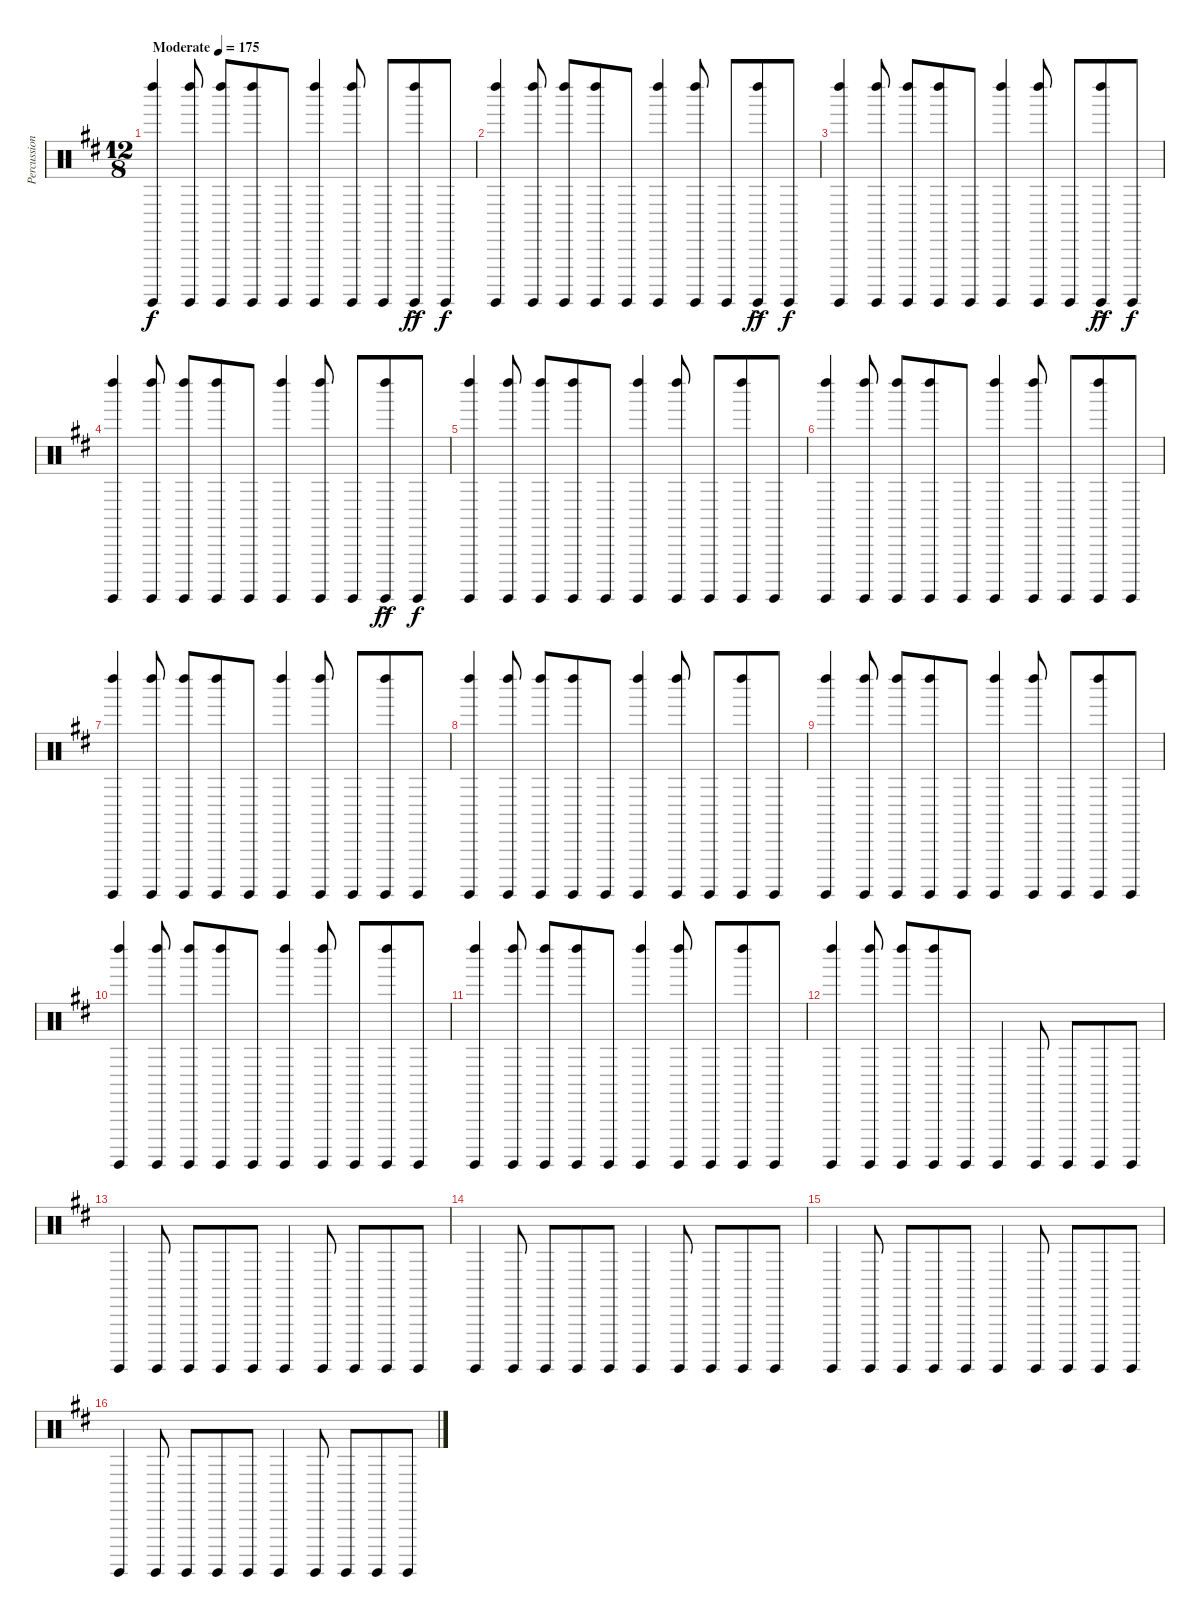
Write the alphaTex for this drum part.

\track ("Percussion" "Percussion") {instrument percussion}
\staff {score}
\articulation defaults
\ts (12 8)
\tempo (175 "Moderate")
\clef neutral
\ks d
("Surdo (hit)" "Left Maraca (hit)").4{dy f} ("Surdo (hit)" "Left Maraca (hit)").8 ("Surdo (hit)" "Left Maraca (hit)").8 ("Surdo (hit)" "Left Maraca (hit)").8 "Surdo (hit)".8 ("Surdo (hit)" "Left Maraca (hit)").4 ("Surdo (hit)" "Left Maraca (hit)").8 "Surdo (hit)".8 ("Surdo (hit)" "Left Maraca (hit)"{ac}).8{dy ff} "Surdo (hit)".8{dy f} |
("Surdo (hit)" "Left Maraca (hit)").4 ("Surdo (hit)" "Left Maraca (hit)").8 ("Surdo (hit)" "Left Maraca (hit)").8 ("Surdo (hit)" "Left Maraca (hit)").8 "Surdo (hit)".8 ("Surdo (hit)" "Left Maraca (hit)").4 ("Surdo (hit)" "Left Maraca (hit)").8 "Surdo (hit)".8 ("Surdo (hit)" "Left Maraca (hit)"{ac}).8{dy ff} "Surdo (hit)".8{dy f} |
("Surdo (hit)" "Left Maraca (hit)").4 ("Surdo (hit)" "Left Maraca (hit)").8 ("Surdo (hit)" "Left Maraca (hit)").8 ("Surdo (hit)" "Left Maraca (hit)").8 "Surdo (hit)".8 ("Surdo (hit)" "Left Maraca (hit)").4 ("Surdo (hit)" "Left Maraca (hit)").8 "Surdo (hit)".8 ("Surdo (hit)" "Left Maraca (hit)"{ac}).8{dy ff} "Surdo (hit)".8{dy f} |
("Surdo (hit)" "Left Maraca (hit)").4 ("Surdo (hit)" "Left Maraca (hit)").8 ("Surdo (hit)" "Left Maraca (hit)").8 ("Surdo (hit)" "Left Maraca (hit)").8 "Surdo (hit)".8 ("Surdo (hit)" "Left Maraca (hit)").4 ("Surdo (hit)" "Left Maraca (hit)").8 "Surdo (hit)".8 ("Surdo (hit)" "Left Maraca (hit)"{ac}).8{dy ff} "Surdo (hit)".8{dy f} |
("Surdo (hit)" "Left Maraca (hit)").4 ("Surdo (hit)" "Left Maraca (hit)").8 ("Surdo (hit)" "Left Maraca (hit)").8 ("Surdo (hit)" "Left Maraca (hit)").8 "Surdo (hit)".8 ("Surdo (hit)" "Left Maraca (hit)").4 ("Surdo (hit)" "Left Maraca (hit)").8 "Surdo (hit)".8 ("Surdo (hit)" "Left Maraca (hit)").8 "Surdo (hit)".8 |
("Surdo (hit)" "Left Maraca (hit)").4 ("Surdo (hit)" "Left Maraca (hit)").8 ("Surdo (hit)" "Left Maraca (hit)").8 ("Surdo (hit)" "Left Maraca (hit)").8 "Surdo (hit)".8 ("Surdo (hit)" "Left Maraca (hit)").4 ("Surdo (hit)" "Left Maraca (hit)").8 "Surdo (hit)".8 ("Surdo (hit)" "Left Maraca (hit)").8 "Surdo (hit)".8 |
("Surdo (hit)" "Left Maraca (hit)").4 ("Surdo (hit)" "Left Maraca (hit)").8 ("Surdo (hit)" "Left Maraca (hit)").8 ("Surdo (hit)" "Left Maraca (hit)").8 "Surdo (hit)".8 ("Surdo (hit)" "Left Maraca (hit)").4 ("Surdo (hit)" "Left Maraca (hit)").8 "Surdo (hit)".8 ("Surdo (hit)" "Left Maraca (hit)").8 "Surdo (hit)".8 |
("Surdo (hit)" "Left Maraca (hit)").4 ("Surdo (hit)" "Left Maraca (hit)").8 ("Surdo (hit)" "Left Maraca (hit)").8 ("Surdo (hit)" "Left Maraca (hit)").8 "Surdo (hit)".8 ("Surdo (hit)" "Left Maraca (hit)").4 ("Surdo (hit)" "Left Maraca (hit)").8 "Surdo (hit)".8 ("Surdo (hit)" "Left Maraca (hit)").8 "Surdo (hit)".8 |
("Surdo (hit)" "Left Maraca (hit)").4 ("Surdo (hit)" "Left Maraca (hit)").8 ("Surdo (hit)" "Left Maraca (hit)").8 ("Surdo (hit)" "Left Maraca (hit)").8 "Surdo (hit)".8 ("Surdo (hit)" "Left Maraca (hit)").4 ("Surdo (hit)" "Left Maraca (hit)").8 "Surdo (hit)".8 ("Surdo (hit)" "Left Maraca (hit)").8 "Surdo (hit)".8 |
("Surdo (hit)" "Left Maraca (hit)").4 ("Surdo (hit)" "Left Maraca (hit)").8 ("Surdo (hit)" "Left Maraca (hit)").8 ("Surdo (hit)" "Left Maraca (hit)").8 "Surdo (hit)".8 ("Surdo (hit)" "Left Maraca (hit)").4 ("Surdo (hit)" "Left Maraca (hit)").8 "Surdo (hit)".8 ("Surdo (hit)" "Left Maraca (hit)").8 "Surdo (hit)".8 |
("Surdo (hit)" "Left Maraca (hit)").4 ("Surdo (hit)" "Left Maraca (hit)").8 ("Surdo (hit)" "Left Maraca (hit)").8 ("Surdo (hit)" "Left Maraca (hit)").8 "Surdo (hit)".8 ("Surdo (hit)" "Left Maraca (hit)").4 ("Surdo (hit)" "Left Maraca (hit)").8 "Surdo (hit)".8 ("Surdo (hit)" "Left Maraca (hit)").8 "Surdo (hit)".8 |
("Surdo (hit)" "Left Maraca (hit)").4 ("Surdo (hit)" "Left Maraca (hit)").8 ("Surdo (hit)" "Left Maraca (hit)").8 ("Surdo (hit)" "Left Maraca (hit)").8 "Surdo (hit)".8 "Surdo (hit)".4 "Surdo (hit)".8 "Surdo (hit)".8 "Surdo (hit)".8 "Surdo (hit)".8 |
"Surdo (hit)".4 "Surdo (hit)".8 "Surdo (hit)".8 "Surdo (hit)".8 "Surdo (hit)".8 "Surdo (hit)".4 "Surdo (hit)".8 "Surdo (hit)".8 "Surdo (hit)".8 "Surdo (hit)".8 |
"Surdo (hit)".4 "Surdo (hit)".8 "Surdo (hit)".8 "Surdo (hit)".8 "Surdo (hit)".8 "Surdo (hit)".4 "Surdo (hit)".8 "Surdo (hit)".8 "Surdo (hit)".8 "Surdo (hit)".8 |
"Surdo (hit)".4 "Surdo (hit)".8 "Surdo (hit)".8 "Surdo (hit)".8 "Surdo (hit)".8 "Surdo (hit)".4 "Surdo (hit)".8 "Surdo (hit)".8 "Surdo (hit)".8 "Surdo (hit)".8 |
"Surdo (hit)".4 "Surdo (hit)".8 "Surdo (hit)".8 "Surdo (hit)".8 "Surdo (hit)".8 "Surdo (hit)".4 "Surdo (hit)".8 "Surdo (hit)".8 "Surdo (hit)".8 "Surdo (hit)".8
